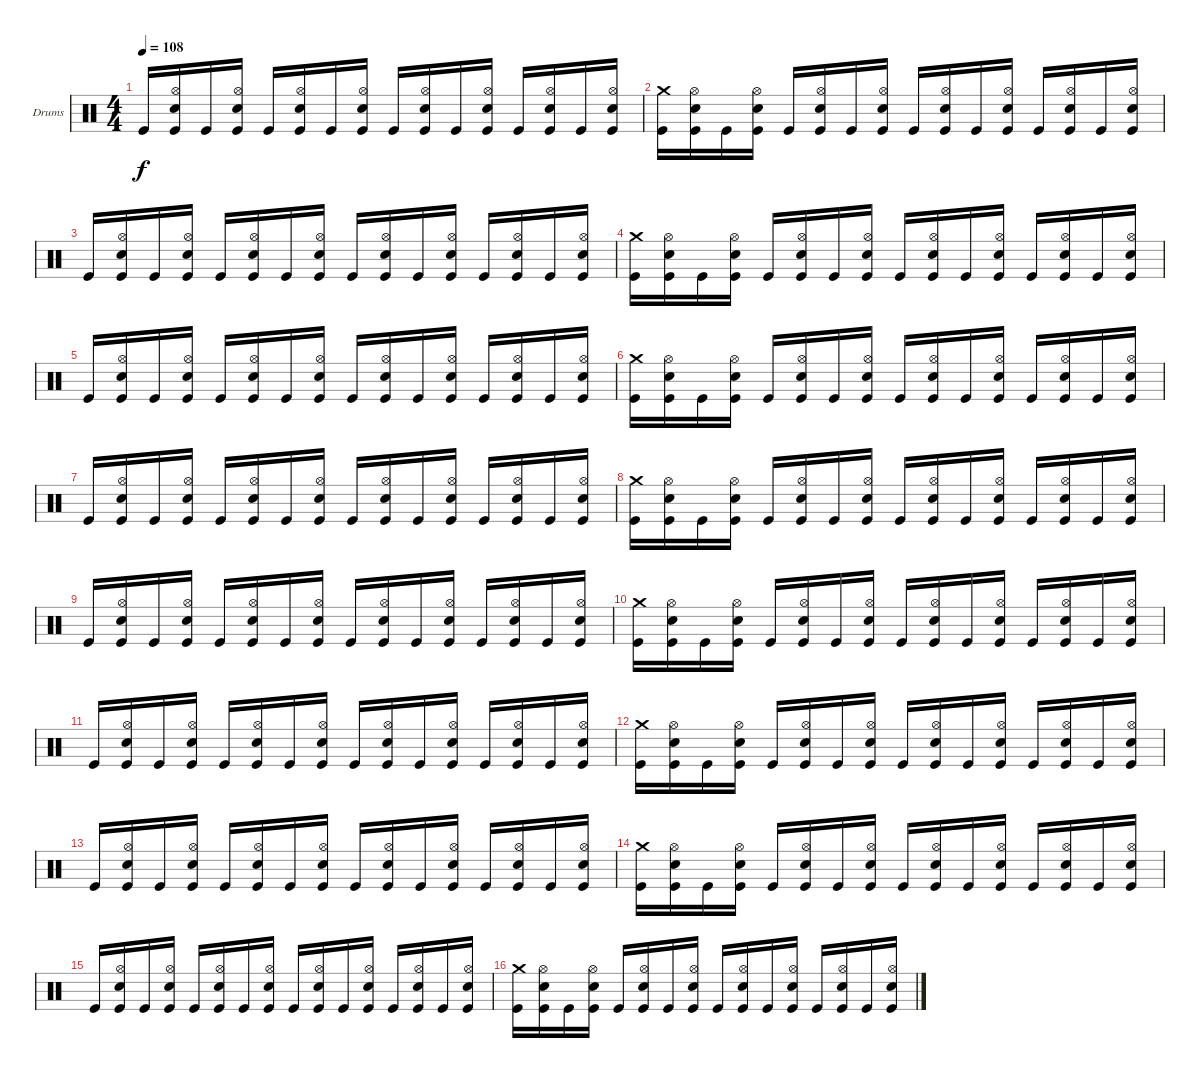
\bracketExtendMode groupsimilarinstruments
\firstSystemTrackNameOrientation horizontal
\otherSystemsTrackNameOrientation horizontal
\track ("Drumkit" "Drums") {instrument percussion}
\staff {score}
\articulation defaults
\ts (4 4)
\tempo 108
\clef neutral
\ks c "Kick (hit)".16{dy f}
("Hi-Hat (open)" "Snare (hit) 2" "Kick (hit)").16 "Kick (hit)".16 ("Hi-Hat (open)" "Snare (hit) 2" "Kick (hit)").16 "Kick (hit)".16 ("Hi-Hat (open)" "Snare (hit) 2" "Kick (hit)").16 "Kick (hit)".16 ("Hi-Hat (open)" "Snare (hit) 2" "Kick (hit)").16 "Kick (hit)".16 ("Hi-Hat (open)" "Snare (hit) 2" "Kick (hit)").16 "Kick (hit)".16 ("Hi-Hat (open)" "Snare (hit) 2" "Kick (hit)").16 "Kick (hit)".16 ("Hi-Hat (open)" "Snare (hit) 2" "Kick (hit)").16 "Kick (hit)".16 ("Hi-Hat (open)" "Snare (hit) 2" "Kick (hit)").16 |
("Crash medium (hit)" "Kick (hit)").16 ("Hi-Hat (open)" "Snare (hit) 2" "Kick (hit)").16 "Kick (hit)".16 ("Hi-Hat (open)" "Snare (hit) 2" "Kick (hit)").16 "Kick (hit)".16 ("Hi-Hat (open)" "Snare (hit) 2" "Kick (hit)").16 "Kick (hit)".16 ("Hi-Hat (open)" "Snare (hit) 2" "Kick (hit)").16 "Kick (hit)".16 ("Hi-Hat (open)" "Snare (hit) 2" "Kick (hit)").16 "Kick (hit)".16 ("Hi-Hat (open)" "Snare (hit) 2" "Kick (hit)").16 "Kick (hit)".16 ("Hi-Hat (open)" "Snare (hit) 2" "Kick (hit)").16 "Kick (hit)".16 ("Hi-Hat (open)" "Snare (hit) 2" "Kick (hit)").16 |
"Kick (hit)".16 ("Hi-Hat (open)" "Snare (hit) 2" "Kick (hit)").16 "Kick (hit)".16 ("Hi-Hat (open)" "Snare (hit) 2" "Kick (hit)").16 "Kick (hit)".16 ("Hi-Hat (open)" "Snare (hit) 2" "Kick (hit)").16 "Kick (hit)".16 ("Hi-Hat (open)" "Snare (hit) 2" "Kick (hit)").16 "Kick (hit)".16 ("Hi-Hat (open)" "Snare (hit) 2" "Kick (hit)").16 "Kick (hit)".16 ("Hi-Hat (open)" "Snare (hit) 2" "Kick (hit)").16 "Kick (hit)".16 ("Hi-Hat (open)" "Snare (hit) 2" "Kick (hit)").16 "Kick (hit)".16 ("Hi-Hat (open)" "Snare (hit) 2" "Kick (hit)").16 |
("Crash medium (hit)" "Kick (hit)").16 ("Hi-Hat (open)" "Snare (hit) 2" "Kick (hit)").16 "Kick (hit)".16 ("Hi-Hat (open)" "Snare (hit) 2" "Kick (hit)").16 "Kick (hit)".16 ("Hi-Hat (open)" "Snare (hit) 2" "Kick (hit)").16 "Kick (hit)".16 ("Hi-Hat (open)" "Snare (hit) 2" "Kick (hit)").16 "Kick (hit)".16 ("Hi-Hat (open)" "Snare (hit) 2" "Kick (hit)").16 "Kick (hit)".16 ("Hi-Hat (open)" "Snare (hit) 2" "Kick (hit)").16 "Kick (hit)".16 ("Hi-Hat (open)" "Snare (hit) 2" "Kick (hit)").16 "Kick (hit)".16 ("Hi-Hat (open)" "Snare (hit) 2" "Kick (hit)").16 |
"Kick (hit)".16 ("Hi-Hat (open)" "Snare (hit) 2" "Kick (hit)").16 "Kick (hit)".16 ("Hi-Hat (open)" "Snare (hit) 2" "Kick (hit)").16 "Kick (hit)".16 ("Hi-Hat (open)" "Snare (hit) 2" "Kick (hit)").16 "Kick (hit)".16 ("Hi-Hat (open)" "Snare (hit) 2" "Kick (hit)").16 "Kick (hit)".16 ("Hi-Hat (open)" "Snare (hit) 2" "Kick (hit)").16 "Kick (hit)".16 ("Hi-Hat (open)" "Snare (hit) 2" "Kick (hit)").16 "Kick (hit)".16 ("Hi-Hat (open)" "Snare (hit) 2" "Kick (hit)").16 "Kick (hit)".16 ("Hi-Hat (open)" "Snare (hit) 2" "Kick (hit)").16 |
("Crash medium (hit)" "Kick (hit)").16 ("Hi-Hat (open)" "Snare (hit) 2" "Kick (hit)").16 "Kick (hit)".16 ("Hi-Hat (open)" "Snare (hit) 2" "Kick (hit)").16 "Kick (hit)".16 ("Hi-Hat (open)" "Snare (hit) 2" "Kick (hit)").16 "Kick (hit)".16 ("Hi-Hat (open)" "Snare (hit) 2" "Kick (hit)").16 "Kick (hit)".16 ("Hi-Hat (open)" "Snare (hit) 2" "Kick (hit)").16 "Kick (hit)".16 ("Hi-Hat (open)" "Snare (hit) 2" "Kick (hit)").16 "Kick (hit)".16 ("Hi-Hat (open)" "Snare (hit) 2" "Kick (hit)").16 "Kick (hit)".16 ("Hi-Hat (open)" "Snare (hit) 2" "Kick (hit)").16 |
"Kick (hit)".16 ("Hi-Hat (open)" "Snare (hit) 2" "Kick (hit)").16 "Kick (hit)".16 ("Hi-Hat (open)" "Snare (hit) 2" "Kick (hit)").16 "Kick (hit)".16 ("Hi-Hat (open)" "Snare (hit) 2" "Kick (hit)").16 "Kick (hit)".16 ("Hi-Hat (open)" "Snare (hit) 2" "Kick (hit)").16 "Kick (hit)".16 ("Hi-Hat (open)" "Snare (hit) 2" "Kick (hit)").16 "Kick (hit)".16 ("Hi-Hat (open)" "Snare (hit) 2" "Kick (hit)").16 "Kick (hit)".16 ("Hi-Hat (open)" "Snare (hit) 2" "Kick (hit)").16 "Kick (hit)".16 ("Hi-Hat (open)" "Snare (hit) 2" "Kick (hit)").16 |
("Crash medium (hit)" "Kick (hit)").16 ("Hi-Hat (open)" "Snare (hit) 2" "Kick (hit)").16 "Kick (hit)".16 ("Hi-Hat (open)" "Snare (hit) 2" "Kick (hit)").16 "Kick (hit)".16 ("Hi-Hat (open)" "Snare (hit) 2" "Kick (hit)").16 "Kick (hit)".16 ("Hi-Hat (open)" "Snare (hit) 2" "Kick (hit)").16 "Kick (hit)".16 ("Hi-Hat (open)" "Snare (hit) 2" "Kick (hit)").16 "Kick (hit)".16 ("Hi-Hat (open)" "Snare (hit) 2" "Kick (hit)").16 "Kick (hit)".16 ("Hi-Hat (open)" "Snare (hit) 2" "Kick (hit)").16 "Kick (hit)".16 ("Hi-Hat (open)" "Snare (hit) 2" "Kick (hit)").16 |
"Kick (hit)".16 ("Hi-Hat (open)" "Snare (hit) 2" "Kick (hit)").16 "Kick (hit)".16 ("Hi-Hat (open)" "Snare (hit) 2" "Kick (hit)").16 "Kick (hit)".16 ("Hi-Hat (open)" "Snare (hit) 2" "Kick (hit)").16 "Kick (hit)".16 ("Hi-Hat (open)" "Snare (hit) 2" "Kick (hit)").16 "Kick (hit)".16 ("Hi-Hat (open)" "Snare (hit) 2" "Kick (hit)").16 "Kick (hit)".16 ("Hi-Hat (open)" "Snare (hit) 2" "Kick (hit)").16 "Kick (hit)".16 ("Hi-Hat (open)" "Snare (hit) 2" "Kick (hit)").16 "Kick (hit)".16 ("Hi-Hat (open)" "Snare (hit) 2" "Kick (hit)").16 |
("Crash medium (hit)" "Kick (hit)").16 ("Hi-Hat (open)" "Snare (hit) 2" "Kick (hit)").16 "Kick (hit)".16 ("Hi-Hat (open)" "Snare (hit) 2" "Kick (hit)").16 "Kick (hit)".16 ("Hi-Hat (open)" "Snare (hit) 2" "Kick (hit)").16 "Kick (hit)".16 ("Hi-Hat (open)" "Snare (hit) 2" "Kick (hit)").16 "Kick (hit)".16 ("Hi-Hat (open)" "Snare (hit) 2" "Kick (hit)").16 "Kick (hit)".16 ("Hi-Hat (open)" "Snare (hit) 2" "Kick (hit)").16 "Kick (hit)".16 ("Hi-Hat (open)" "Snare (hit) 2" "Kick (hit)").16 "Kick (hit)".16 ("Hi-Hat (open)" "Snare (hit) 2" "Kick (hit)").16 |
"Kick (hit)".16 ("Hi-Hat (open)" "Snare (hit) 2" "Kick (hit)").16 "Kick (hit)".16 ("Hi-Hat (open)" "Snare (hit) 2" "Kick (hit)").16 "Kick (hit)".16 ("Hi-Hat (open)" "Snare (hit) 2" "Kick (hit)").16 "Kick (hit)".16 ("Hi-Hat (open)" "Snare (hit) 2" "Kick (hit)").16 "Kick (hit)".16 ("Hi-Hat (open)" "Snare (hit) 2" "Kick (hit)").16 "Kick (hit)".16 ("Hi-Hat (open)" "Snare (hit) 2" "Kick (hit)").16 "Kick (hit)".16 ("Hi-Hat (open)" "Snare (hit) 2" "Kick (hit)").16 "Kick (hit)".16 ("Hi-Hat (open)" "Snare (hit) 2" "Kick (hit)").16 |
("Crash medium (hit)" "Kick (hit)").16 ("Hi-Hat (open)" "Snare (hit) 2" "Kick (hit)").16 "Kick (hit)".16 ("Hi-Hat (open)" "Snare (hit) 2" "Kick (hit)").16 "Kick (hit)".16 ("Hi-Hat (open)" "Snare (hit) 2" "Kick (hit)").16 "Kick (hit)".16 ("Hi-Hat (open)" "Snare (hit) 2" "Kick (hit)").16 "Kick (hit)".16 ("Hi-Hat (open)" "Snare (hit) 2" "Kick (hit)").16 "Kick (hit)".16 ("Hi-Hat (open)" "Snare (hit) 2" "Kick (hit)").16 "Kick (hit)".16 ("Hi-Hat (open)" "Snare (hit) 2" "Kick (hit)").16 "Kick (hit)".16 ("Hi-Hat (open)" "Snare (hit) 2" "Kick (hit)").16 |
"Kick (hit)".16 ("Hi-Hat (open)" "Snare (hit) 2" "Kick (hit)").16 "Kick (hit)".16 ("Hi-Hat (open)" "Snare (hit) 2" "Kick (hit)").16 "Kick (hit)".16 ("Hi-Hat (open)" "Snare (hit) 2" "Kick (hit)").16 "Kick (hit)".16 ("Hi-Hat (open)" "Snare (hit) 2" "Kick (hit)").16 "Kick (hit)".16 ("Hi-Hat (open)" "Snare (hit) 2" "Kick (hit)").16 "Kick (hit)".16 ("Hi-Hat (open)" "Snare (hit) 2" "Kick (hit)").16 "Kick (hit)".16 ("Hi-Hat (open)" "Snare (hit) 2" "Kick (hit)").16 "Kick (hit)".16 ("Hi-Hat (open)" "Snare (hit) 2" "Kick (hit)").16 |
("Crash medium (hit)" "Kick (hit)").16 ("Hi-Hat (open)" "Snare (hit) 2" "Kick (hit)").16 "Kick (hit)".16 ("Hi-Hat (open)" "Snare (hit) 2" "Kick (hit)").16 "Kick (hit)".16 ("Hi-Hat (open)" "Snare (hit) 2" "Kick (hit)").16 "Kick (hit)".16 ("Hi-Hat (open)" "Snare (hit) 2" "Kick (hit)").16 "Kick (hit)".16 ("Hi-Hat (open)" "Snare (hit) 2" "Kick (hit)").16 "Kick (hit)".16 ("Hi-Hat (open)" "Snare (hit) 2" "Kick (hit)").16 "Kick (hit)".16 ("Hi-Hat (open)" "Snare (hit) 2" "Kick (hit)").16 "Kick (hit)".16 ("Hi-Hat (open)" "Snare (hit) 2" "Kick (hit)").16 |
"Kick (hit)".16 ("Hi-Hat (open)" "Snare (hit) 2" "Kick (hit)").16 "Kick (hit)".16 ("Hi-Hat (open)" "Snare (hit) 2" "Kick (hit)").16 "Kick (hit)".16 ("Hi-Hat (open)" "Snare (hit) 2" "Kick (hit)").16 "Kick (hit)".16 ("Hi-Hat (open)" "Snare (hit) 2" "Kick (hit)").16 "Kick (hit)".16 ("Hi-Hat (open)" "Snare (hit) 2" "Kick (hit)").16 "Kick (hit)".16 ("Hi-Hat (open)" "Snare (hit) 2" "Kick (hit)").16 "Kick (hit)".16 ("Hi-Hat (open)" "Snare (hit) 2" "Kick (hit)").16 "Kick (hit)".16 ("Hi-Hat (open)" "Snare (hit) 2" "Kick (hit)").16 |
("Crash medium (hit)" "Kick (hit)").16 ("Hi-Hat (open)" "Snare (hit) 2" "Kick (hit)").16 "Kick (hit)".16 ("Hi-Hat (open)" "Snare (hit) 2" "Kick (hit)").16 "Kick (hit)".16 ("Hi-Hat (open)" "Snare (hit) 2" "Kick (hit)").16 "Kick (hit)".16 ("Hi-Hat (open)" "Snare (hit) 2" "Kick (hit)").16 "Kick (hit)".16 ("Hi-Hat (open)" "Snare (hit) 2" "Kick (hit)").16 "Kick (hit)".16 ("Hi-Hat (open)" "Snare (hit) 2" "Kick (hit)").16 "Kick (hit)".16 ("Hi-Hat (open)" "Snare (hit) 2" "Kick (hit)").16 "Kick (hit)".16 ("Hi-Hat (open)" "Snare (hit) 2" "Kick (hit)").16
